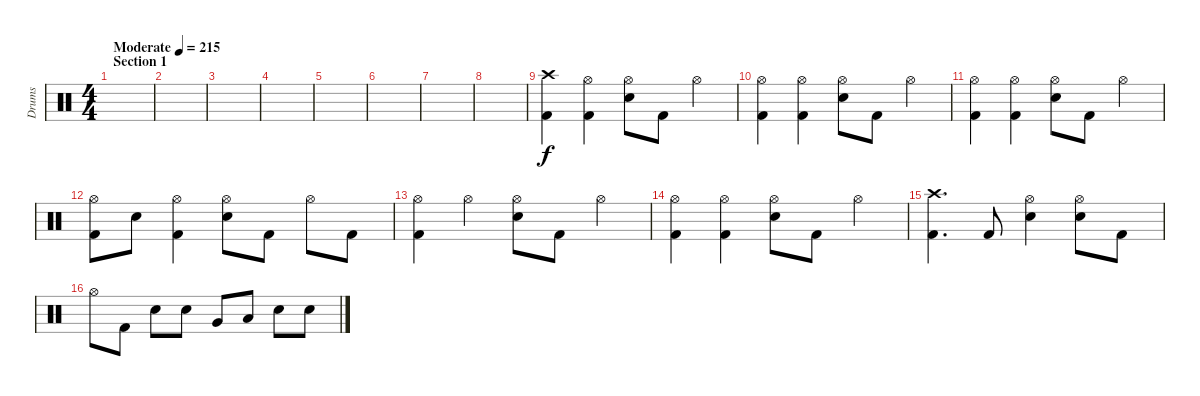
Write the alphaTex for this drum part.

\track ("Drums" "Drums") {instrument percussion}
\staff {score}
\articulation defaults
\ts (4 4)
\section ("" "Section 1")
\tempo (215 "Moderate")
\clef neutral
\ks c
|
|
|
|
|
|
|
|
("Crash high (hit)" "Kick (hit) 2").4 ("Hi-Hat (open)" "Kick (hit) 2").4 ("Hi-Hat (open)" "Snare (hit) 2").8 "Kick (hit) 2".8 "Hi-Hat (open)".4 |
("Hi-Hat (open)" "Kick (hit) 2").4 ("Hi-Hat (open)" "Kick (hit) 2").4 ("Hi-Hat (open)" "Snare (hit) 2").8 "Kick (hit) 2".8 "Hi-Hat (open)".4 |
("Hi-Hat (open)" "Kick (hit) 2").4 ("Hi-Hat (open)" "Kick (hit) 2").4 ("Hi-Hat (open)" "Snare (hit) 2").8 "Kick (hit) 2".8 "Hi-Hat (open)".4 |
("Hi-Hat (open)" "Kick (hit) 2").8 "Snare (hit) 2".8 ("Hi-Hat (open)" "Kick (hit) 2").4 ("Hi-Hat (open)" "Snare (hit) 2").8 "Kick (hit) 2".8 "Hi-Hat (open)".8 "Kick (hit) 2".8 |
("Hi-Hat (open)" "Kick (hit) 2").4 "Hi-Hat (open)".4 ("Hi-Hat (open)" "Snare (hit) 2").8 "Kick (hit) 2".8 "Hi-Hat (open)".4 |
("Hi-Hat (open)" "Kick (hit) 2").4 ("Hi-Hat (open)" "Kick (hit) 2").4 ("Hi-Hat (open)" "Snare (hit) 2").8 "Kick (hit) 2".8 "Hi-Hat (open)".4 |
("Crash high (hit)" "Kick (hit) 2").4{d} "Kick (hit) 2".8 ("Hi-Hat (open)" "Snare (hit) 2").4 ("Hi-Hat (open)" "Snare (hit) 2").8 "Kick (hit) 2".8 |
"Hi-Hat (open)".8 "Kick (hit) 2".8 "Snare (hit) 2".8 "Snare (hit) 2".8 "Very Low Tom (hit)".8 "Low Floor Tom (hit)".8 "Snare (hit) 2".8 "Snare (hit) 2".8
